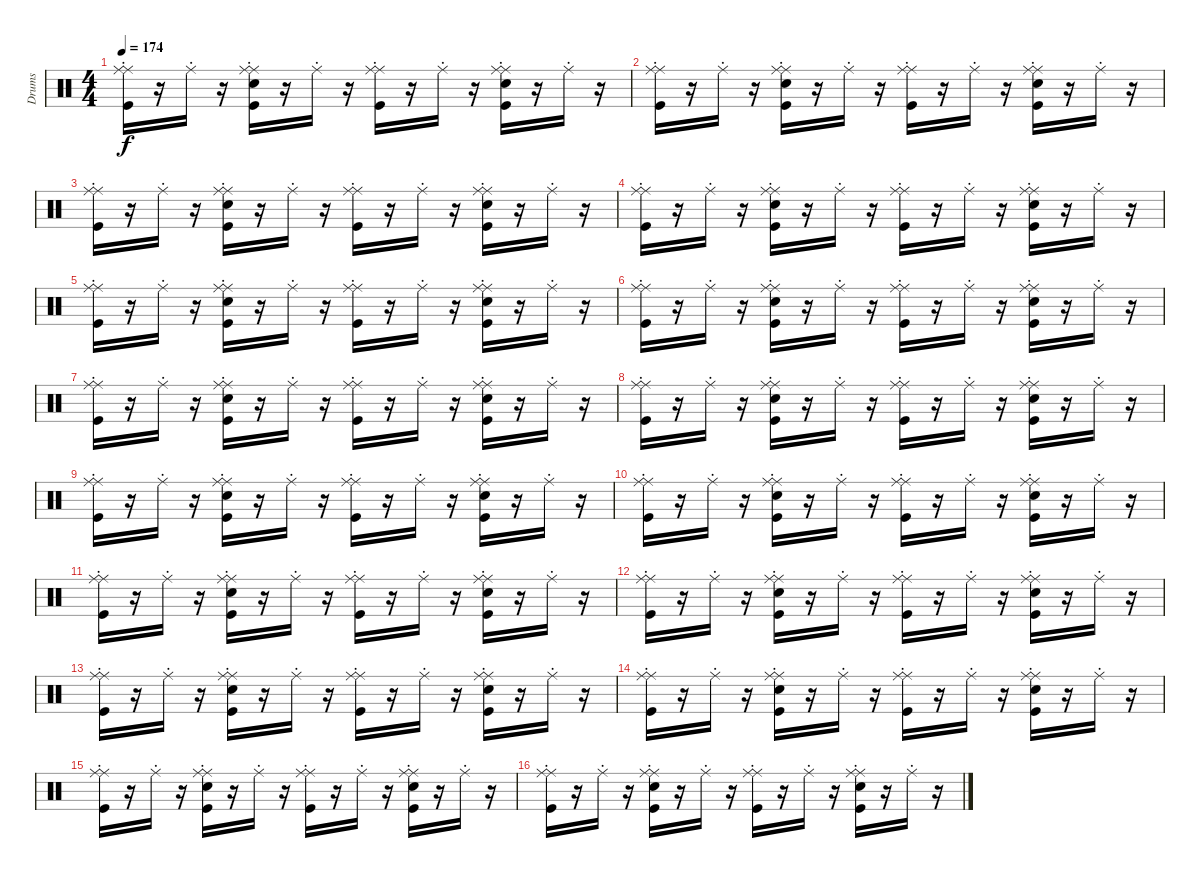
\track ("Drums" "Drums") {instrument percussion}
\staff {score}
\articulation defaults
\ts (4 4)
\tempo 174
\clef neutral
\ks c
("Ride (middle)" "Kick (hit)" "Ride (choke)").16{dy f} r.16 "Ride (choke)".16 r.16 ("Ride (middle)" "Kick (hit)" "Snare (hit) 2" "Ride (choke)").16 r.16 "Ride (choke)".16 r.16 ("Ride (middle)" "Kick (hit)" "Ride (choke)").16 r.16 "Ride (choke)".16 r.16 ("Kick (hit)" "Snare (hit) 2" "Ride (choke)" "Ride (middle)").16 r.16 "Ride (choke)".16 r.16 |
("Ride (middle)" "Kick (hit)" "Ride (choke)").16 r.16 "Ride (choke)".16 r.16 ("Ride (middle)" "Kick (hit)" "Snare (hit) 2" "Ride (choke)").16 r.16 "Ride (choke)".16 r.16 ("Ride (middle)" "Kick (hit)" "Ride (choke)").16 r.16 "Ride (choke)".16 r.16 ("Ride (middle)" "Kick (hit)" "Snare (hit) 2" "Ride (choke)").16 r.16 "Ride (choke)".16 r.16 |
("Ride (middle)" "Kick (hit)" "Ride (choke)").16 r.16 "Ride (choke)".16 r.16 ("Ride (middle)" "Kick (hit)" "Snare (hit) 2" "Ride (choke)").16 r.16 "Ride (choke)".16 r.16 ("Ride (middle)" "Kick (hit)" "Ride (choke)").16 r.16 "Ride (choke)".16 r.16 ("Kick (hit)" "Snare (hit) 2" "Ride (choke)" "Ride (middle)").16 r.16 "Ride (choke)".16 r.16 |
("Ride (middle)" "Kick (hit)" "Ride (choke)").16 r.16 "Ride (choke)".16 r.16 ("Ride (middle)" "Kick (hit)" "Snare (hit) 2" "Ride (choke)").16 r.16 "Ride (choke)".16 r.16 ("Ride (middle)" "Kick (hit)" "Ride (choke)").16 r.16 "Ride (choke)".16 r.16 ("Ride (middle)" "Kick (hit)" "Snare (hit) 2" "Ride (choke)").16 r.16 "Ride (choke)".16 r.16 |
("Ride (middle)" "Kick (hit)" "Ride (choke)").16 r.16 "Ride (choke)".16 r.16 ("Ride (middle)" "Kick (hit)" "Snare (hit) 2" "Ride (choke)").16 r.16 "Ride (choke)".16 r.16 ("Ride (middle)" "Kick (hit)" "Ride (choke)").16 r.16 "Ride (choke)".16 r.16 ("Kick (hit)" "Snare (hit) 2" "Ride (choke)" "Ride (middle)").16 r.16 "Ride (choke)".16 r.16 |
("Ride (middle)" "Kick (hit)" "Ride (choke)").16 r.16 "Ride (choke)".16 r.16 ("Ride (middle)" "Kick (hit)" "Snare (hit) 2" "Ride (choke)").16 r.16 "Ride (choke)".16 r.16 ("Ride (middle)" "Kick (hit)" "Ride (choke)").16 r.16 "Ride (choke)".16 r.16 ("Ride (middle)" "Kick (hit)" "Snare (hit) 2" "Ride (choke)").16 r.16 "Ride (choke)".16 r.16 |
("Ride (middle)" "Kick (hit)" "Ride (choke)").16 r.16 "Ride (choke)".16 r.16 ("Ride (middle)" "Kick (hit)" "Snare (hit) 2" "Ride (choke)").16 r.16 "Ride (choke)".16 r.16 ("Ride (middle)" "Kick (hit)" "Ride (choke)").16 r.16 "Ride (choke)".16 r.16 ("Kick (hit)" "Snare (hit) 2" "Ride (choke)" "Ride (middle)").16 r.16 "Ride (choke)".16 r.16 |
("Ride (middle)" "Kick (hit)" "Ride (choke)").16 r.16 "Ride (choke)".16 r.16 ("Ride (middle)" "Kick (hit)" "Snare (hit) 2" "Ride (choke)").16 r.16 "Ride (choke)".16 r.16 ("Ride (middle)" "Kick (hit)" "Ride (choke)").16 r.16 "Ride (choke)".16 r.16 ("Ride (middle)" "Kick (hit)" "Snare (hit) 2" "Ride (choke)").16 r.16 "Ride (choke)".16 r.16 |
("Ride (middle)" "Kick (hit)" "Ride (choke)").16 r.16 "Ride (choke)".16 r.16 ("Ride (middle)" "Kick (hit)" "Snare (hit) 2" "Ride (choke)").16 r.16 "Ride (choke)".16 r.16 ("Ride (middle)" "Kick (hit)" "Ride (choke)").16 r.16 "Ride (choke)".16 r.16 ("Ride (middle)" "Kick (hit)" "Snare (hit) 2" "Ride (choke)").16 r.16 "Ride (choke)".16 r.16 |
("Ride (middle)" "Kick (hit)" "Ride (choke)").16 r.16 "Ride (choke)".16 r.16 ("Ride (middle)" "Kick (hit)" "Snare (hit) 2" "Ride (choke)").16 r.16 "Ride (choke)".16 r.16 ("Ride (middle)" "Kick (hit)" "Ride (choke)").16 r.16 "Ride (choke)".16 r.16 ("Ride (middle)" "Kick (hit)" "Snare (hit) 2" "Ride (choke)").16 r.16 "Ride (choke)".16 r.16 |
("Ride (middle)" "Kick (hit)" "Ride (choke)").16 r.16 "Ride (choke)".16 r.16 ("Ride (middle)" "Kick (hit)" "Snare (hit) 2" "Ride (choke)").16 r.16 "Ride (choke)".16 r.16 ("Ride (middle)" "Kick (hit)" "Ride (choke)").16 r.16 "Ride (choke)".16 r.16 ("Ride (middle)" "Kick (hit)" "Snare (hit) 2" "Ride (choke)").16 r.16 "Ride (choke)".16 r.16 |
("Ride (middle)" "Kick (hit)" "Ride (choke)").16 r.16 "Ride (choke)".16 r.16 ("Ride (middle)" "Kick (hit)" "Snare (hit) 2" "Ride (choke)").16 r.16 "Ride (choke)".16 r.16 ("Ride (middle)" "Kick (hit)" "Ride (choke)").16 r.16 "Ride (choke)".16 r.16 ("Ride (middle)" "Kick (hit)" "Snare (hit) 2" "Ride (choke)").16 r.16 "Ride (choke)".16 r.16 |
("Ride (middle)" "Kick (hit)" "Ride (choke)").16 r.16 "Ride (choke)".16 r.16 ("Ride (middle)" "Kick (hit)" "Snare (hit) 2" "Ride (choke)").16 r.16 "Ride (choke)".16 r.16 ("Ride (middle)" "Kick (hit)" "Ride (choke)").16 r.16 "Ride (choke)".16 r.16 ("Ride (middle)" "Kick (hit)" "Snare (hit) 2" "Ride (choke)").16 r.16 "Ride (choke)".16 r.16 |
("Ride (middle)" "Kick (hit)" "Ride (choke)").16 r.16 "Ride (choke)".16 r.16 ("Ride (middle)" "Kick (hit)" "Snare (hit) 2" "Ride (choke)").16 r.16 "Ride (choke)".16 r.16 ("Ride (middle)" "Kick (hit)" "Ride (choke)").16 r.16 "Ride (choke)".16 r.16 ("Ride (middle)" "Kick (hit)" "Snare (hit) 2" "Ride (choke)").16 r.16 "Ride (choke)".16 r.16 |
("Ride (middle)" "Kick (hit)" "Ride (choke)").16 r.16 "Ride (choke)".16 r.16 ("Ride (middle)" "Kick (hit)" "Snare (hit) 2" "Ride (choke)").16 r.16 "Ride (choke)".16 r.16 ("Ride (middle)" "Kick (hit)" "Ride (choke)").16 r.16 "Ride (choke)".16 r.16 ("Ride (middle)" "Kick (hit)" "Snare (hit) 2" "Ride (choke)").16 r.16 "Ride (choke)".16 r.16 |
("Ride (middle)" "Kick (hit)" "Ride (choke)").16 r.16 "Ride (choke)".16 r.16 ("Ride (middle)" "Kick (hit)" "Snare (hit) 2" "Ride (choke)").16 r.16 "Ride (choke)".16 r.16 ("Ride (middle)" "Kick (hit)" "Ride (choke)").16 r.16 "Ride (choke)".16 r.16 ("Ride (middle)" "Kick (hit)" "Snare (hit) 2" "Ride (choke)").16 r.16 "Ride (choke)".16 r.16
